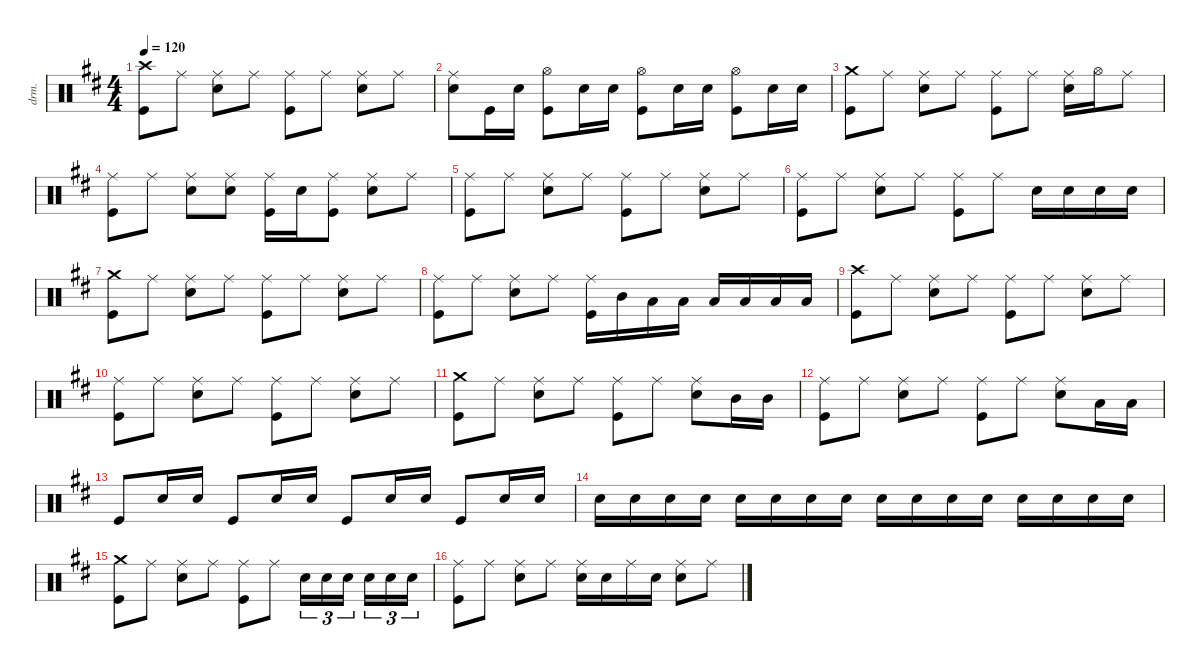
\defaultSystemsLayout 4
\hideDynamics
\bracketExtendMode nobrackets
\otherSystemsTrackNameOrientation horizontal
\track ("Drums" "drm.") {instrument percussion}
\staff {score}
\articulation defaults
\ts (4 4)
\tempo 120
\clef neutral
\ks d
("Crash high (hit)"{acc forcenatural} "Kick (hit)"{acc forcenatural}).8{dy f} "Ride (middle)"{acc forcenatural}.8 ("Ride (middle)"{acc forcenatural} "Snare (hit) 2"{acc forcenatural}).8 "Ride (middle)"{acc forcenatural}.8 ("Ride (middle)"{acc forcenatural} "Kick (hit)"{acc forcenatural}).8 "Ride (middle)"{acc forcenatural}.8 ("Ride (middle)"{acc forcenatural} "Snare (hit) 2"{acc forcenatural}).8 "Ride (middle)"{acc forcenatural}.8 |
("Ride (middle)"{acc forcenatural} "Snare (hit) 2"{acc forcenatural}).8 "Kick (hit)"{acc forcenatural}.16 "Snare (hit) 2"{acc forcenatural}.16 ("Hi-Hat (open)"{acc forcenatural} "Kick (hit)"{acc forcenatural}).8 "Snare (hit) 2"{acc forcenatural}.16 "Snare (hit) 2"{acc forcenatural}.16 ("Hi-Hat (open)"{acc forcenatural} "Kick (hit)"{acc forcenatural}).8 "Snare (hit) 2"{acc forcenatural}.16 "Snare (hit) 2"{acc forcenatural}.16 ("Hi-Hat (open)"{acc forcenatural} "Kick (hit)"{acc forcenatural}).8 "Snare (hit) 2"{acc forcenatural}.16 "Snare (hit) 2"{acc forcenatural}.16 |
("Crash medium (hit)"{acc forcenatural} "Kick (hit)"{acc forcenatural}).8 "Ride (middle)"{acc forcenatural}.8 ("Ride (middle)"{acc forcenatural} "Snare (hit) 2"{acc forcenatural}).8 "Ride (middle)"{acc forcenatural}.8 ("Ride (middle)"{acc forcenatural} "Kick (hit)"{acc forcenatural}).8 "Ride (middle)"{acc forcenatural}.8 ("Ride (middle)"{acc forcenatural} "Snare (hit) 2"{acc forcenatural}).16 "Hi-Hat (open)"{acc forcenatural}.16 "Ride (middle)"{acc forcenatural}.8 |
("Ride (middle)"{acc forcenatural} "Kick (hit)"{acc forcenatural}).8 "Ride (middle)"{acc forcenatural}.8 ("Ride (middle)"{acc forcenatural} "Snare (hit) 2"{acc forcenatural}).8 ("Ride (middle)"{acc forcenatural} "Snare (hit) 2"{acc forcenatural}).8 ("Ride (middle)"{acc forcenatural} "Kick (hit)"{acc forcenatural}).16 "Snare (hit) 2"{acc forcenatural}.16 ("Ride (middle)"{acc forcenatural} "Kick (hit)"{acc forcenatural}).8 ("Ride (middle)"{acc forcenatural} "Snare (hit) 2"{acc forcenatural}).8 "Ride (middle)"{acc forcenatural}.8 |
("Ride (middle)"{acc forcenatural} "Kick (hit)"{acc forcenatural}).8 "Ride (middle)"{acc forcenatural}.8 ("Ride (middle)"{acc forcenatural} "Snare (hit) 2"{acc forcenatural}).8 "Ride (middle)"{acc forcenatural}.8 ("Ride (middle)"{acc forcenatural} "Kick (hit)"{acc forcenatural}).8 "Ride (middle)"{acc forcenatural}.8 ("Ride (middle)"{acc forcenatural} "Snare (hit) 2"{acc forcenatural}).8 "Ride (middle)"{acc forcenatural}.8 |
("Ride (middle)"{acc forcenatural} "Kick (hit)"{acc forcenatural}).8 "Ride (middle)"{acc forcenatural}.8 ("Ride (middle)"{acc forcenatural} "Snare (hit) 2"{acc forcenatural}).8 "Ride (middle)"{acc forcenatural}.8 ("Ride (middle)"{acc forcenatural} "Kick (hit)"{acc forcenatural}).8 "Ride (middle)"{acc forcenatural}.8 "Snare (hit) 2"{acc forcenatural}.16 "Snare (hit) 2"{acc forcenatural}.16 "Snare (hit) 2"{acc forcenatural}.16 "Snare (hit) 2"{acc forcenatural}.16 |
("Crash medium (hit)"{acc forcenatural} "Kick (hit)"{acc forcenatural}).8 "Ride (middle)"{acc forcenatural}.8 ("Ride (middle)"{acc forcenatural} "Snare (hit) 2"{acc forcenatural}).8 "Ride (middle)"{acc forcenatural}.8 ("Ride (middle)"{acc forcenatural} "Kick (hit)"{acc forcenatural}).8 "Ride (middle)"{acc forcenatural}.8 ("Ride (middle)"{acc forcenatural} "Snare (hit) 2"{acc forcenatural}).8 "Ride (middle)"{acc forcenatural}.8 |
("Ride (middle)"{acc forcenatural} "Kick (hit)"{acc forcenatural}).8 "Ride (middle)"{acc forcenatural}.8 ("Ride (middle)"{acc forcenatural} "Snare (hit) 2"{acc forcenatural}).8 "Ride (middle)"{acc forcenatural}.8 ("Ride (middle)"{acc forcenatural} "Kick (hit)"{acc forcenatural}).16 "Mid Tom (hit)"{acc forcenatural}.16 "Low Tom (hit)"{acc forcenatural}.16 "Low Tom (hit)"{acc forcenatural}.16 "Low Tom (hit)"{acc forcenatural}.16 "Low Tom (hit)"{acc forcenatural}.16 "Low Tom (hit)"{acc forcenatural}.16 "Low Tom (hit)"{acc forcenatural}.16 |
("Crash high (hit)"{acc forcenatural} "Kick (hit)"{acc forcenatural}).8 "Ride (middle)"{acc forcenatural}.8 ("Ride (middle)"{acc forcenatural} "Snare (hit) 2"{acc forcenatural}).8 "Ride (middle)"{acc forcenatural}.8 ("Ride (middle)"{acc forcenatural} "Kick (hit)"{acc forcenatural}).8 "Ride (middle)"{acc forcenatural}.8 ("Ride (middle)"{acc forcenatural} "Snare (hit) 2"{acc forcenatural}).8 "Ride (middle)"{acc forcenatural}.8 |
("Ride (middle)"{acc forcenatural} "Kick (hit)"{acc forcenatural}).8 "Ride (middle)"{acc forcenatural}.8 ("Ride (middle)"{acc forcenatural} "Snare (hit) 2"{acc forcenatural}).8 "Ride (middle)"{acc forcenatural}.8 ("Ride (middle)"{acc forcenatural} "Kick (hit)"{acc forcenatural}).8 "Ride (middle)"{acc forcenatural}.8 ("Ride (middle)"{acc forcenatural} "Snare (hit) 2"{acc forcenatural}).8 "Ride (middle)"{acc forcenatural}.8 |
("Crash medium (hit)"{acc forcenatural} "Kick (hit)"{acc forcenatural}).8 "Ride (middle)"{acc forcenatural}.8 ("Ride (middle)"{acc forcenatural} "Snare (hit) 2"{acc forcenatural}).8 "Ride (middle)"{acc forcenatural}.8 ("Ride (middle)"{acc forcenatural} "Kick (hit)"{acc forcenatural}).8 "Ride (middle)"{acc forcenatural}.8 ("Ride (middle)"{acc forcenatural} "Snare (hit) 2"{acc forcenatural}).8 "Mid Tom (hit)"{acc forcenatural}.16 "Mid Tom (hit)"{acc forcenatural}.16 |
("Ride (middle)"{acc forcenatural} "Kick (hit)"{acc forcenatural}).8 "Ride (middle)"{acc forcenatural}.8 ("Ride (middle)"{acc forcenatural} "Snare (hit) 2"{acc forcenatural}).8 "Ride (middle)"{acc forcenatural}.8 ("Ride (middle)"{acc forcenatural} "Kick (hit)"{acc forcenatural}).8 "Ride (middle)"{acc forcenatural}.8 ("Ride (middle)"{acc forcenatural} "Snare (hit) 2"{acc forcenatural}).8 "Low Tom (hit)"{acc forcenatural}.16 "Low Tom (hit)"{acc forcenatural}.16 |
"Kick (hit)"{acc forcenatural}.8 "Snare (hit) 2"{acc forcenatural}.16 "Snare (hit) 2"{acc forcenatural}.16 "Kick (hit)"{acc forcenatural}.8 "Snare (hit) 2"{acc forcenatural}.16 "Snare (hit) 2"{acc forcenatural}.16 "Kick (hit)"{acc forcenatural}.8 "Snare (hit) 2"{acc forcenatural}.16 "Snare (hit) 2"{acc forcenatural}.16 "Kick (hit)"{acc forcenatural}.8 "Snare (hit) 2"{acc forcenatural}.16 "Snare (hit) 2"{acc forcenatural}.16 |
"Snare (hit) 2"{acc forcenatural}.16 "Snare (hit) 2"{acc forcenatural}.16 "Snare (hit) 2"{acc forcenatural}.16 "Snare (hit) 2"{acc forcenatural}.16 "Snare (hit) 2"{acc forcenatural}.16 "Snare (hit) 2"{acc forcenatural}.16 "Snare (hit) 2"{acc forcenatural}.16 "Snare (hit) 2"{acc forcenatural}.16 "Snare (hit) 2"{acc forcenatural}.16 "Snare (hit) 2"{acc forcenatural}.16 "Snare (hit) 2"{acc forcenatural}.16 "Snare (hit) 2"{acc forcenatural}.16 "Snare (hit) 2"{acc forcenatural}.16 "Snare (hit) 2"{acc forcenatural}.16 "Snare (hit) 2"{acc forcenatural}.16 "Snare (hit) 2"{acc forcenatural}.16 |
("Crash medium (hit)"{acc forcenatural} "Kick (hit)"{acc forcenatural}).8 "Ride (middle)"{acc forcenatural}.8 ("Ride (middle)"{acc forcenatural} "Snare (hit) 2"{acc forcenatural}).8 "Ride (middle)"{acc forcenatural}.8 ("Ride (middle)"{acc forcenatural} "Kick (hit)"{acc forcenatural}).8 "Ride (middle)"{acc forcenatural}.8 "Snare (hit) 2"{acc forcenatural}.16{tu (3 2)} "Snare (hit) 2"{acc forcenatural}.16{tu (3 2)} "Snare (hit) 2"{acc forcenatural}.16{tu (3 2)} "Snare (hit) 2"{acc forcenatural}.16{tu (3 2)} "Snare (hit) 2"{acc forcenatural}.16{tu (3 2)} "Snare (hit) 2"{acc forcenatural}.16{tu (3 2)} |
("Ride (middle)"{acc forcenatural} "Kick (hit)"{acc forcenatural}).8 "Ride (middle)"{acc forcenatural}.8 ("Ride (middle)"{acc forcenatural} "Snare (hit) 2"{acc forcenatural}).8 "Ride (middle)"{acc forcenatural}.8 ("Ride (middle)"{acc forcenatural} "Snare (hit) 2"{acc forcenatural}).16 "Snare (hit) 2"{acc forcenatural}.16 "Ride (middle)"{acc forcenatural}.16 "Snare (hit) 2"{acc forcenatural}.16 ("Ride (middle)"{acc forcenatural} "Snare (hit) 2"{acc forcenatural}).8 "Ride (middle)"{acc forcenatural}.8
